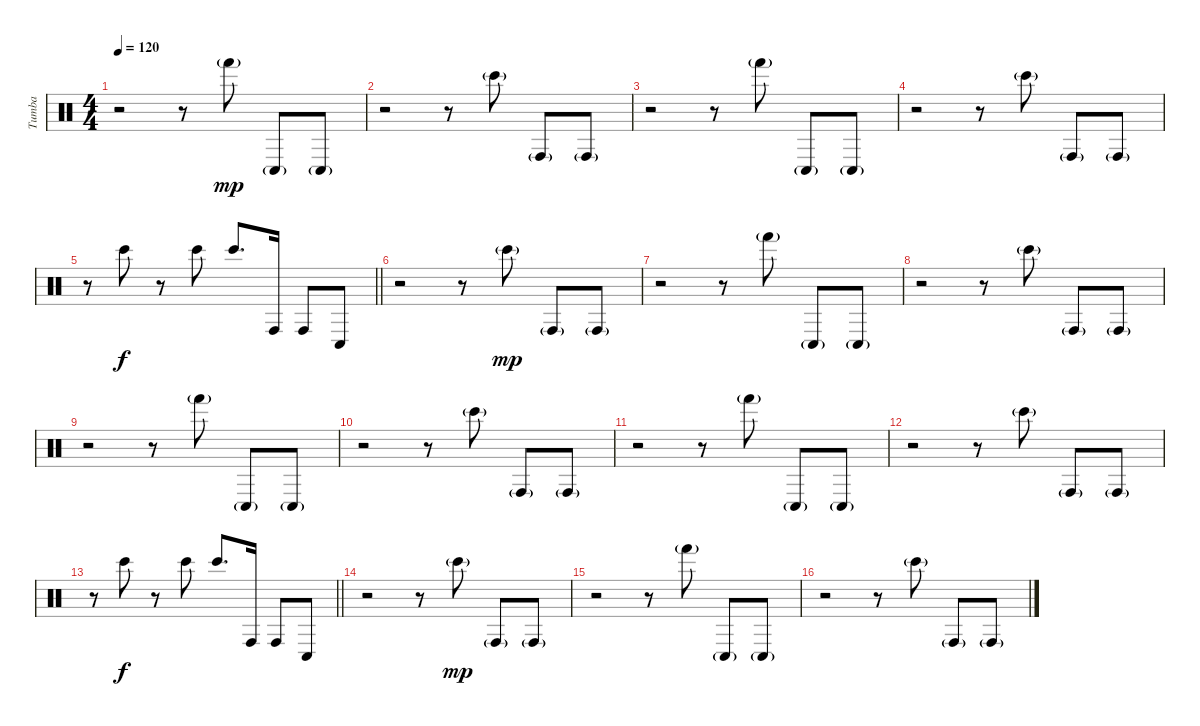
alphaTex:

\track ("Tumba" "Tumba") {instrument percussion}
\staff {score}
\articulation defaults
\ts (4 4)
\tempo 120
\clef neutral
\ks c
r.2{dy mp} r.8 "Hand (hit)"{g}.8 "Conga low (hit)"{g}.8 "Conga low (hit)"{g}.8 |
r.2 r.8 "Bongo High (hit)"{g}.8 "Conga high (hit)"{g}.8 "Conga high (hit)"{g}.8 |
r.2 r.8 "Hand (hit)"{g}.8 "Conga low (hit)"{g}.8 "Conga low (hit)"{g}.8 |
r.2 r.8 "Bongo High (hit)"{g}.8 "Conga high (hit)"{g}.8 "Conga high (hit)"{g}.8 |
\barLineRight lightlight
r.8 "Bongo High (hit)".8{dy f} r.8 "Bongo High (hit)".8 "Bongo High (hit)".8{d} "Conga high (hit)".16 "Conga high (hit)".8 "Conga low (hit)".8 |
\section ("" "")
r.2 r.8 "Bongo High (hit)"{g}.8{dy mp} "Conga high (hit)"{g}.8 "Conga high (hit)"{g}.8 |
r.2 r.8 "Hand (hit)"{g}.8 "Conga low (hit)"{g}.8 "Conga low (hit)"{g}.8 |
r.2 r.8 "Bongo High (hit)"{g}.8 "Conga high (hit)"{g}.8 "Conga high (hit)"{g}.8 |
r.2 r.8 "Hand (hit)"{g}.8 "Conga low (hit)"{g}.8 "Conga low (hit)"{g}.8 |
r.2 r.8 "Bongo High (hit)"{g}.8 "Conga high (hit)"{g}.8 "Conga high (hit)"{g}.8 |
r.2 r.8 "Hand (hit)"{g}.8 "Conga low (hit)"{g}.8 "Conga low (hit)"{g}.8 |
r.2 r.8 "Bongo High (hit)"{g}.8 "Conga high (hit)"{g}.8 "Conga high (hit)"{g}.8 |
\barLineRight lightlight
r.8 "Bongo High (hit)".8{dy f} r.8 "Bongo High (hit)".8 "Bongo High (hit)".8{d} "Conga high (hit)".16 "Conga high (hit)".8 "Conga low (hit)".8 |
\section ("" "")
r.2 r.8 "Bongo High (hit)"{g}.8{dy mp} "Conga high (hit)"{g}.8 "Conga high (hit)"{g}.8 |
r.2 r.8 "Hand (hit)"{g}.8 "Conga low (hit)"{g}.8 "Conga low (hit)"{g}.8 |
r.2 r.8 "Bongo High (hit)"{g}.8 "Conga high (hit)"{g}.8 "Conga high (hit)"{g}.8
